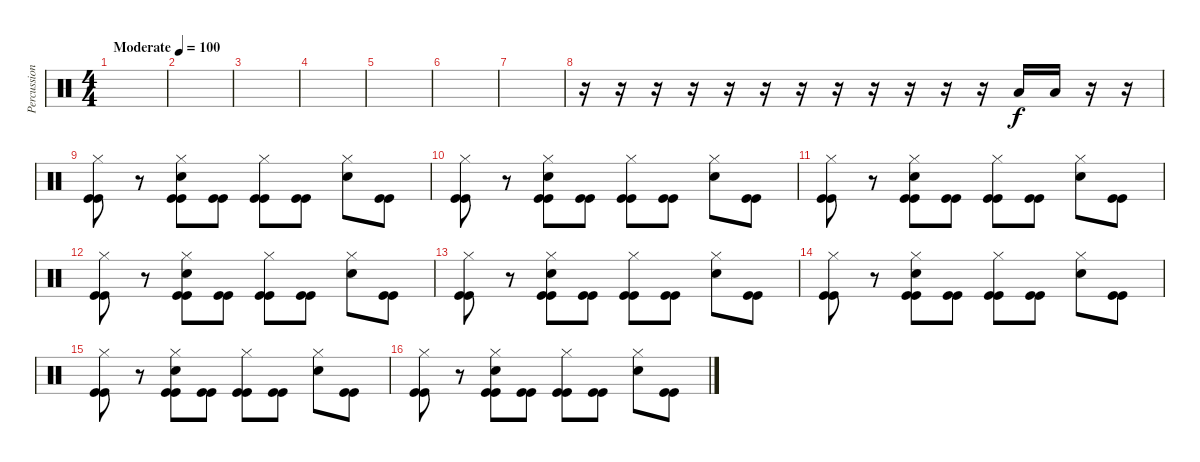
\track ("Percussion" "Percussion") {instrument percussion}
\staff {score}
\articulation defaults
\ts (4 4)
\tempo (100 "Moderate")
\clef neutral
\ks c
|
|
|
|
|
|
|
r.16 r.16 r.16 r.16 r.16 r.16 r.16 r.16 r.16 r.16 r.16 r.16 "Low Tom (hit)".16 "Low Tom (hit)".16 r.16 r.16 |
("Hi-Hat (closed)" "Kick (hit)" "Kick (hit)").8 r.8 ("Hi-Hat (closed)" "Kick (hit)" "Kick (hit)" "Electric Snare (hit)").8 ("Kick (hit)" "Kick (hit)").8 ("Hi-Hat (closed)" "Kick (hit)" "Kick (hit)").8 ("Kick (hit)" "Kick (hit)").8 ("Hi-Hat (closed)" "Electric Snare (hit)").8 ("Kick (hit)" "Kick (hit)").8 |
("Hi-Hat (closed)" "Kick (hit)" "Kick (hit)").8 r.8 ("Hi-Hat (closed)" "Kick (hit)" "Kick (hit)" "Electric Snare (hit)").8 ("Kick (hit)" "Kick (hit)").8 ("Hi-Hat (closed)" "Kick (hit)" "Kick (hit)").8 ("Kick (hit)" "Kick (hit)").8 ("Hi-Hat (closed)" "Electric Snare (hit)").8 ("Kick (hit)" "Kick (hit)").8 |
("Hi-Hat (closed)" "Kick (hit)" "Kick (hit)").8 r.8 ("Hi-Hat (closed)" "Kick (hit)" "Kick (hit)" "Electric Snare (hit)").8 ("Kick (hit)" "Kick (hit)").8 ("Hi-Hat (closed)" "Kick (hit)" "Kick (hit)").8 ("Kick (hit)" "Kick (hit)").8 ("Hi-Hat (closed)" "Electric Snare (hit)").8 ("Kick (hit)" "Kick (hit)").8 |
("Hi-Hat (closed)" "Kick (hit)" "Kick (hit)").8 r.8 ("Hi-Hat (closed)" "Kick (hit)" "Kick (hit)" "Electric Snare (hit)").8 ("Kick (hit)" "Kick (hit)").8 ("Hi-Hat (closed)" "Kick (hit)" "Kick (hit)").8 ("Kick (hit)" "Kick (hit)").8 ("Hi-Hat (closed)" "Electric Snare (hit)").8 ("Kick (hit)" "Kick (hit)").8 |
("Hi-Hat (closed)" "Kick (hit)" "Kick (hit)").8 r.8 ("Hi-Hat (closed)" "Kick (hit)" "Kick (hit)" "Electric Snare (hit)").8 ("Kick (hit)" "Kick (hit)").8 ("Hi-Hat (closed)" "Kick (hit)" "Kick (hit)").8 ("Kick (hit)" "Kick (hit)").8 ("Hi-Hat (closed)" "Electric Snare (hit)").8 ("Kick (hit)" "Kick (hit)").8 |
("Hi-Hat (closed)" "Kick (hit)" "Kick (hit)").8 r.8 ("Hi-Hat (closed)" "Kick (hit)" "Kick (hit)" "Electric Snare (hit)").8 ("Kick (hit)" "Kick (hit)").8 ("Hi-Hat (closed)" "Kick (hit)" "Kick (hit)").8 ("Kick (hit)" "Kick (hit)").8 ("Hi-Hat (closed)" "Electric Snare (hit)").8 ("Kick (hit)" "Kick (hit)").8 |
("Hi-Hat (closed)" "Kick (hit)" "Kick (hit)").8 r.8 ("Hi-Hat (closed)" "Kick (hit)" "Kick (hit)" "Electric Snare (hit)").8 ("Kick (hit)" "Kick (hit)").8 ("Hi-Hat (closed)" "Kick (hit)" "Kick (hit)").8 ("Kick (hit)" "Kick (hit)").8 ("Hi-Hat (closed)" "Electric Snare (hit)").8 ("Kick (hit)" "Kick (hit)").8 |
("Hi-Hat (closed)" "Kick (hit)" "Kick (hit)").8 r.8 ("Hi-Hat (closed)" "Kick (hit)" "Kick (hit)" "Electric Snare (hit)").8 ("Kick (hit)" "Kick (hit)").8 ("Hi-Hat (closed)" "Kick (hit)" "Kick (hit)").8 ("Kick (hit)" "Kick (hit)").8 ("Hi-Hat (closed)" "Electric Snare (hit)").8 ("Kick (hit)" "Kick (hit)").8
